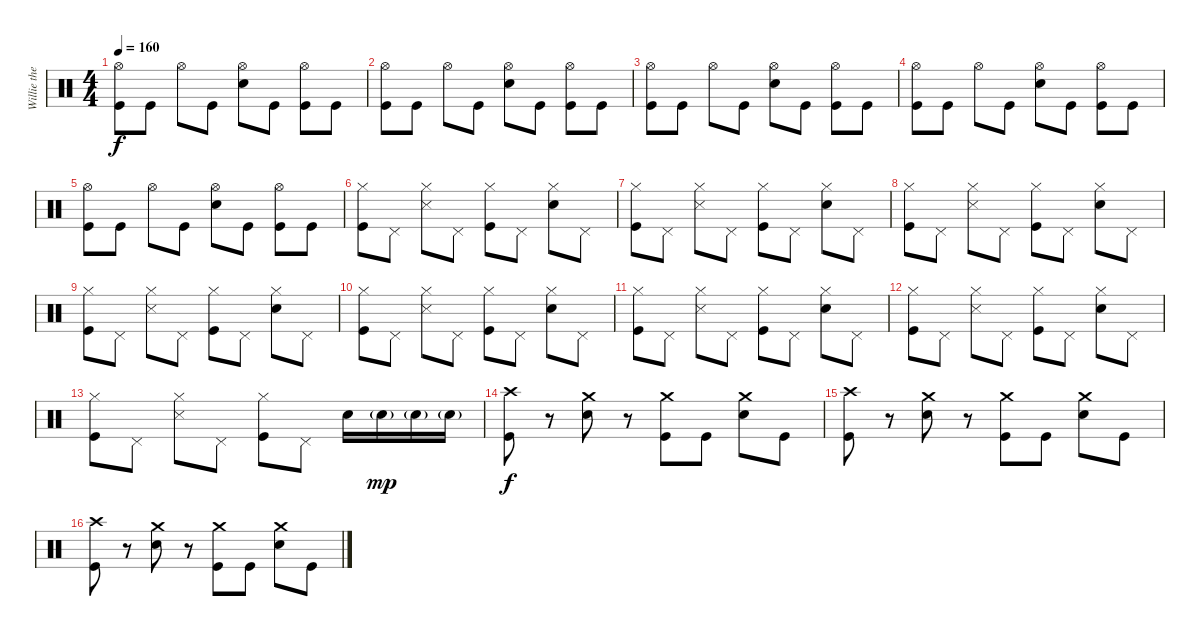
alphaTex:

\track ("Willie the new guy" "Willie the") {instrument percussion}
\staff {score}
\articulation defaults
\ts (4 4)
\tempo 160
\clef neutral
\ks c
("Hi-Hat (open)" "Kick (hit)").8{dy f} "Kick (hit)".8 "Hi-Hat (open)".8 "Kick (hit)".8 ("Hi-Hat (open)" "Snare (hit) 2").8 "Kick (hit)".8 ("Hi-Hat (open)" "Kick (hit)").8 "Kick (hit)".8 |
("Hi-Hat (open)" "Kick (hit)").8 "Kick (hit)".8 "Hi-Hat (open)".8 "Kick (hit)".8 ("Hi-Hat (open)" "Snare (hit) 2").8 "Kick (hit)".8 ("Hi-Hat (open)" "Kick (hit)").8 "Kick (hit)".8 |
("Hi-Hat (open)" "Kick (hit)").8 "Kick (hit)".8 "Hi-Hat (open)".8 "Kick (hit)".8 ("Hi-Hat (open)" "Snare (hit) 2").8 "Kick (hit)".8 ("Hi-Hat (open)" "Kick (hit)").8 "Kick (hit)".8 |
("Hi-Hat (open)" "Kick (hit)").8 "Kick (hit)".8 "Hi-Hat (open)".8 "Kick (hit)".8 ("Hi-Hat (open)" "Snare (hit) 2").8 "Kick (hit)".8 ("Hi-Hat (open)" "Kick (hit)").8 "Kick (hit)".8 |
("Hi-Hat (open)" "Kick (hit)").8 "Kick (hit)".8 "Hi-Hat (open)".8 "Kick (hit)".8 ("Hi-Hat (open)" "Snare (hit) 2").8 "Kick (hit)".8 ("Hi-Hat (open)" "Kick (hit)").8 "Kick (hit)".8 |
("Hi-Hat (closed)" "Kick (hit)").8 "Pedal Hi-Hat (hit)".8 ("Hi-Hat (closed)" "Snare (side stick) 3").8 "Pedal Hi-Hat (hit)".8 ("Hi-Hat (closed)" "Kick (hit)").8 "Pedal Hi-Hat (hit)".8 ("Hi-Hat (closed)" "Snare (hit) 2").8 "Pedal Hi-Hat (hit)".8 |
("Hi-Hat (closed)" "Kick (hit)").8 "Pedal Hi-Hat (hit)".8 ("Hi-Hat (closed)" "Snare (side stick) 3").8 "Pedal Hi-Hat (hit)".8 ("Hi-Hat (closed)" "Kick (hit)").8 "Pedal Hi-Hat (hit)".8 ("Hi-Hat (closed)" "Snare (hit) 2").8 "Pedal Hi-Hat (hit)".8 |
("Hi-Hat (closed)" "Kick (hit)").8 "Pedal Hi-Hat (hit)".8 ("Hi-Hat (closed)" "Snare (side stick) 3").8 "Pedal Hi-Hat (hit)".8 ("Hi-Hat (closed)" "Kick (hit)").8 "Pedal Hi-Hat (hit)".8 ("Hi-Hat (closed)" "Snare (hit) 2").8 "Pedal Hi-Hat (hit)".8 |
("Hi-Hat (closed)" "Kick (hit)").8 "Pedal Hi-Hat (hit)".8 ("Hi-Hat (closed)" "Snare (side stick) 3").8 "Pedal Hi-Hat (hit)".8 ("Hi-Hat (closed)" "Kick (hit)").8 "Pedal Hi-Hat (hit)".8 ("Hi-Hat (closed)" "Snare (hit) 2").8 "Pedal Hi-Hat (hit)".8 |
("Hi-Hat (closed)" "Kick (hit)").8 "Pedal Hi-Hat (hit)".8 ("Hi-Hat (closed)" "Snare (side stick) 3").8 "Pedal Hi-Hat (hit)".8 ("Hi-Hat (closed)" "Kick (hit)").8 "Pedal Hi-Hat (hit)".8 ("Hi-Hat (closed)" "Snare (hit) 2").8 "Pedal Hi-Hat (hit)".8 |
("Hi-Hat (closed)" "Kick (hit)").8 "Pedal Hi-Hat (hit)".8 ("Hi-Hat (closed)" "Snare (side stick) 3").8 "Pedal Hi-Hat (hit)".8 ("Hi-Hat (closed)" "Kick (hit)").8 "Pedal Hi-Hat (hit)".8 ("Hi-Hat (closed)" "Snare (hit) 2").8 "Pedal Hi-Hat (hit)".8 |
("Hi-Hat (closed)" "Kick (hit)").8 "Pedal Hi-Hat (hit)".8 ("Hi-Hat (closed)" "Snare (side stick) 3").8 "Pedal Hi-Hat (hit)".8 ("Hi-Hat (closed)" "Kick (hit)").8 "Pedal Hi-Hat (hit)".8 ("Hi-Hat (closed)" "Snare (hit) 2").8 "Pedal Hi-Hat (hit)".8 |
("Hi-Hat (closed)" "Kick (hit)").8 "Pedal Hi-Hat (hit)".8 ("Hi-Hat (closed)" "Snare (side stick) 3").8 "Pedal Hi-Hat (hit)".8 ("Hi-Hat (closed)" "Kick (hit)").8 "Pedal Hi-Hat (hit)".8 "Snare (hit) 2".16 "Snare (hit) 2"{g}.16{dy mp} "Snare (hit) 2"{g}.16 "Snare (hit) 2"{g}.16 |
("Crash high (hit)" "Kick (hit)").8{dy f} r.8 ("Crash medium (hit)" "Snare (hit) 2").8 r.8 ("Crash medium (hit)" "Kick (hit)").8 "Kick (hit)".8 ("Crash medium (hit)" "Snare (hit) 2").8 "Kick (hit)".8 |
("Crash high (hit)" "Kick (hit)").8 r.8 ("Crash medium (hit)" "Snare (hit) 2").8 r.8 ("Crash medium (hit)" "Kick (hit)").8 "Kick (hit)".8 ("Crash medium (hit)" "Snare (hit) 2").8 "Kick (hit)".8 |
("Crash high (hit)" "Kick (hit)").8 r.8 ("Crash medium (hit)" "Snare (hit) 2").8 r.8 ("Crash medium (hit)" "Kick (hit)").8 "Kick (hit)".8 ("Crash medium (hit)" "Snare (hit) 2").8 "Kick (hit)".8
